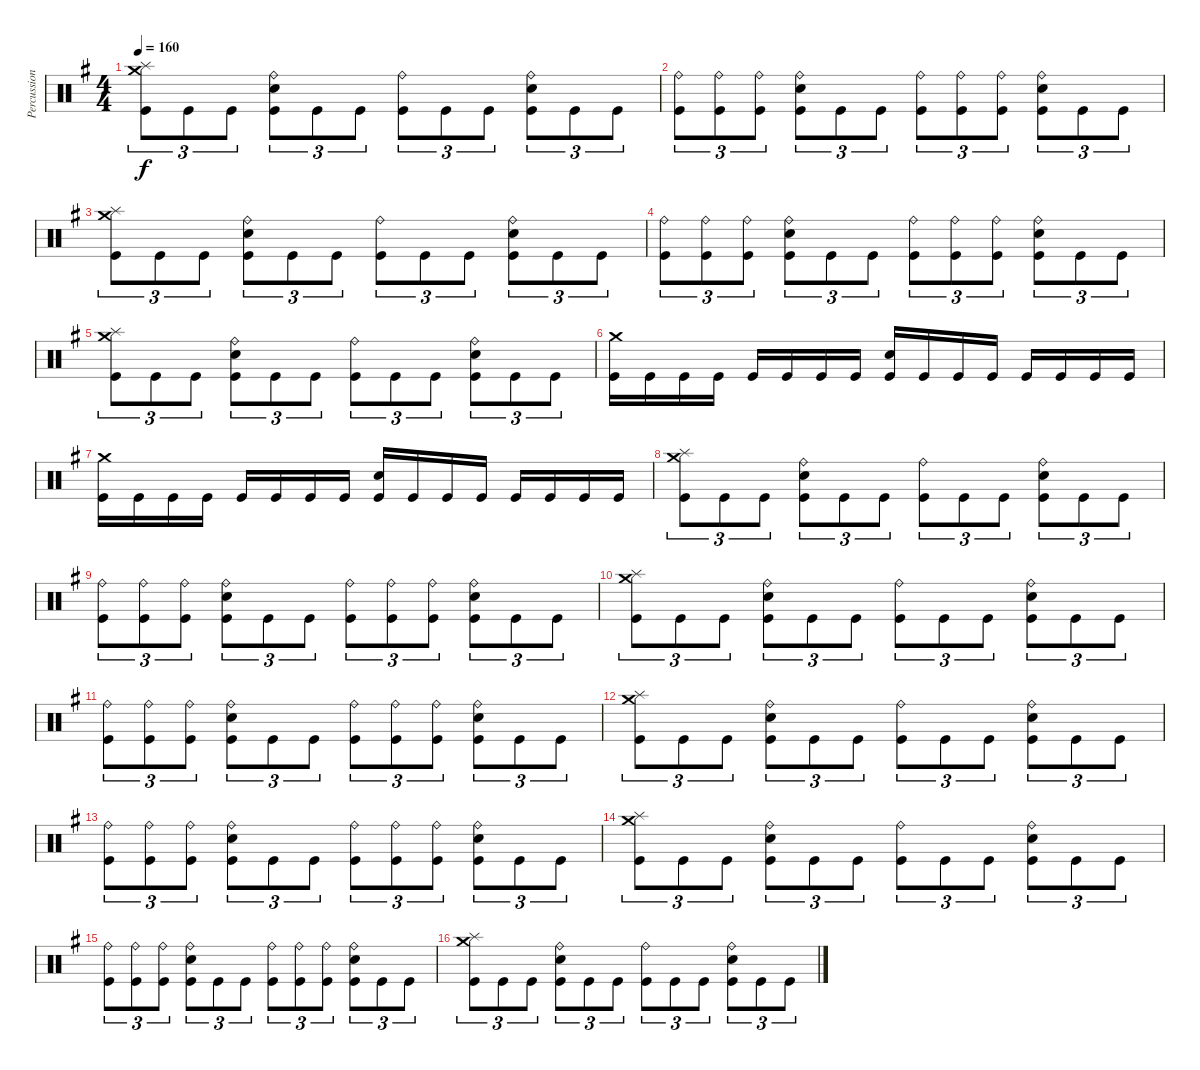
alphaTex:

\track ("Percussions" "Percussion") {instrument percussion}
\staff {score}
\articulation defaults
\ts (4 4)
\tempo 160
\clef neutral
\ks g
("Kick (hit)" "Splash (hit)" "Crash medium (hit)").8{tu (3 2) dy f} "Kick (hit)".8{tu (3 2)} "Kick (hit)".8{tu (3 2)} ("Kick (hit)" "Electric Snare (hit)" "Ride (bell)").8{tu (3 2)} "Kick (hit)".8{tu (3 2)} "Kick (hit)".8{tu (3 2)} ("Kick (hit)" "Ride (bell)").8{tu (3 2)} "Kick (hit)".8{tu (3 2)} "Kick (hit)".8{tu (3 2)} ("Kick (hit)" "Electric Snare (hit)" "Ride (bell)").8{tu (3 2)} "Kick (hit)".8{tu (3 2)} "Kick (hit)".8{tu (3 2)} |
("Kick (hit)" "Ride (bell)").8{tu (3 2)} ("Kick (hit)" "Ride (bell)").8{tu (3 2)} ("Kick (hit)" "Ride (bell)").8{tu (3 2)} ("Kick (hit)" "Electric Snare (hit)" "Ride (bell)").8{tu (3 2)} "Kick (hit)".8{tu (3 2)} "Kick (hit)".8{tu (3 2)} ("Kick (hit)" "Ride (bell)").8{tu (3 2)} ("Kick (hit)" "Ride (bell)").8{tu (3 2)} ("Kick (hit)" "Ride (bell)").8{tu (3 2)} ("Kick (hit)" "Electric Snare (hit)" "Ride (bell)").8{tu (3 2)} "Kick (hit)".8{tu (3 2)} "Kick (hit)".8{tu (3 2)} |
("Kick (hit)" "Splash (hit)" "Crash medium (hit)").8{tu (3 2)} "Kick (hit)".8{tu (3 2)} "Kick (hit)".8{tu (3 2)} ("Kick (hit)" "Electric Snare (hit)" "Ride (bell)").8{tu (3 2)} "Kick (hit)".8{tu (3 2)} "Kick (hit)".8{tu (3 2)} ("Kick (hit)" "Ride (bell)").8{tu (3 2)} "Kick (hit)".8{tu (3 2)} "Kick (hit)".8{tu (3 2)} ("Kick (hit)" "Electric Snare (hit)" "Ride (bell)").8{tu (3 2)} "Kick (hit)".8{tu (3 2)} "Kick (hit)".8{tu (3 2)} |
("Kick (hit)" "Ride (bell)").8{tu (3 2)} ("Kick (hit)" "Ride (bell)").8{tu (3 2)} ("Kick (hit)" "Ride (bell)").8{tu (3 2)} ("Kick (hit)" "Electric Snare (hit)" "Ride (bell)").8{tu (3 2)} "Kick (hit)".8{tu (3 2)} "Kick (hit)".8{tu (3 2)} ("Kick (hit)" "Ride (bell)").8{tu (3 2)} ("Kick (hit)" "Ride (bell)").8{tu (3 2)} ("Kick (hit)" "Ride (bell)").8{tu (3 2)} ("Kick (hit)" "Electric Snare (hit)" "Ride (bell)").8{tu (3 2)} "Kick (hit)".8{tu (3 2)} "Kick (hit)".8{tu (3 2)} |
("Kick (hit)" "Splash (hit)" "Crash medium (hit)").8{tu (3 2)} "Kick (hit)".8{tu (3 2)} "Kick (hit)".8{tu (3 2)} ("Kick (hit)" "Electric Snare (hit)" "Ride (bell)").8{tu (3 2)} "Kick (hit)".8{tu (3 2)} "Kick (hit)".8{tu (3 2)} ("Kick (hit)" "Ride (bell)").8{tu (3 2)} "Kick (hit)".8{tu (3 2)} "Kick (hit)".8{tu (3 2)} ("Kick (hit)" "Electric Snare (hit)" "Ride (bell)").8{tu (3 2)} "Kick (hit)".8{tu (3 2)} "Kick (hit)".8{tu (3 2)} |
("Kick (hit)" "Crash medium (hit)").16 "Kick (hit)".16 "Kick (hit)".16 "Kick (hit)".16 "Kick (hit)".16 "Kick (hit)".16 "Kick (hit)".16 "Kick (hit)".16 ("Kick (hit)" "Electric Snare (hit)").16 "Kick (hit)".16 "Kick (hit)".16 "Kick (hit)".16 "Kick (hit)".16 "Kick (hit)".16 "Kick (hit)".16 "Kick (hit)".16 |
("Kick (hit)" "Crash medium (hit)").16 "Kick (hit)".16 "Kick (hit)".16 "Kick (hit)".16 "Kick (hit)".16 "Kick (hit)".16 "Kick (hit)".16 "Kick (hit)".16 ("Kick (hit)" "Electric Snare (hit)").16 "Kick (hit)".16 "Kick (hit)".16 "Kick (hit)".16 "Kick (hit)".16 "Kick (hit)".16 "Kick (hit)".16 "Kick (hit)".16 |
("Kick (hit)" "Splash (hit)" "Crash medium (hit)").8{tu (3 2)} "Kick (hit)".8{tu (3 2)} "Kick (hit)".8{tu (3 2)} ("Kick (hit)" "Electric Snare (hit)" "Ride (bell)").8{tu (3 2)} "Kick (hit)".8{tu (3 2)} "Kick (hit)".8{tu (3 2)} ("Kick (hit)" "Ride (bell)").8{tu (3 2)} "Kick (hit)".8{tu (3 2)} "Kick (hit)".8{tu (3 2)} ("Kick (hit)" "Electric Snare (hit)" "Ride (bell)").8{tu (3 2)} "Kick (hit)".8{tu (3 2)} "Kick (hit)".8{tu (3 2)} |
("Kick (hit)" "Ride (bell)").8{tu (3 2)} ("Kick (hit)" "Ride (bell)").8{tu (3 2)} ("Kick (hit)" "Ride (bell)").8{tu (3 2)} ("Kick (hit)" "Electric Snare (hit)" "Ride (bell)").8{tu (3 2)} "Kick (hit)".8{tu (3 2)} "Kick (hit)".8{tu (3 2)} ("Kick (hit)" "Ride (bell)").8{tu (3 2)} ("Kick (hit)" "Ride (bell)").8{tu (3 2)} ("Kick (hit)" "Ride (bell)").8{tu (3 2)} ("Kick (hit)" "Electric Snare (hit)" "Ride (bell)").8{tu (3 2)} "Kick (hit)".8{tu (3 2)} "Kick (hit)".8{tu (3 2)} |
("Kick (hit)" "Splash (hit)" "Crash medium (hit)").8{tu (3 2)} "Kick (hit)".8{tu (3 2)} "Kick (hit)".8{tu (3 2)} ("Kick (hit)" "Electric Snare (hit)" "Ride (bell)").8{tu (3 2)} "Kick (hit)".8{tu (3 2)} "Kick (hit)".8{tu (3 2)} ("Kick (hit)" "Ride (bell)").8{tu (3 2)} "Kick (hit)".8{tu (3 2)} "Kick (hit)".8{tu (3 2)} ("Kick (hit)" "Electric Snare (hit)" "Ride (bell)").8{tu (3 2)} "Kick (hit)".8{tu (3 2)} "Kick (hit)".8{tu (3 2)} |
("Kick (hit)" "Ride (bell)").8{tu (3 2)} ("Kick (hit)" "Ride (bell)").8{tu (3 2)} ("Kick (hit)" "Ride (bell)").8{tu (3 2)} ("Kick (hit)" "Electric Snare (hit)" "Ride (bell)").8{tu (3 2)} "Kick (hit)".8{tu (3 2)} "Kick (hit)".8{tu (3 2)} ("Kick (hit)" "Ride (bell)").8{tu (3 2)} ("Kick (hit)" "Ride (bell)").8{tu (3 2)} ("Kick (hit)" "Ride (bell)").8{tu (3 2)} ("Kick (hit)" "Electric Snare (hit)" "Ride (bell)").8{tu (3 2)} "Kick (hit)".8{tu (3 2)} "Kick (hit)".8{tu (3 2)} |
("Kick (hit)" "Splash (hit)" "Crash medium (hit)").8{tu (3 2)} "Kick (hit)".8{tu (3 2)} "Kick (hit)".8{tu (3 2)} ("Kick (hit)" "Electric Snare (hit)" "Ride (bell)").8{tu (3 2)} "Kick (hit)".8{tu (3 2)} "Kick (hit)".8{tu (3 2)} ("Kick (hit)" "Ride (bell)").8{tu (3 2)} "Kick (hit)".8{tu (3 2)} "Kick (hit)".8{tu (3 2)} ("Kick (hit)" "Electric Snare (hit)" "Ride (bell)").8{tu (3 2)} "Kick (hit)".8{tu (3 2)} "Kick (hit)".8{tu (3 2)} |
("Kick (hit)" "Ride (bell)").8{tu (3 2)} ("Kick (hit)" "Ride (bell)").8{tu (3 2)} ("Kick (hit)" "Ride (bell)").8{tu (3 2)} ("Kick (hit)" "Electric Snare (hit)" "Ride (bell)").8{tu (3 2)} "Kick (hit)".8{tu (3 2)} "Kick (hit)".8{tu (3 2)} ("Kick (hit)" "Ride (bell)").8{tu (3 2)} ("Kick (hit)" "Ride (bell)").8{tu (3 2)} ("Kick (hit)" "Ride (bell)").8{tu (3 2)} ("Kick (hit)" "Electric Snare (hit)" "Ride (bell)").8{tu (3 2)} "Kick (hit)".8{tu (3 2)} "Kick (hit)".8{tu (3 2)} |
("Kick (hit)" "Splash (hit)" "Crash medium (hit)").8{tu (3 2)} "Kick (hit)".8{tu (3 2)} "Kick (hit)".8{tu (3 2)} ("Kick (hit)" "Electric Snare (hit)" "Ride (bell)").8{tu (3 2)} "Kick (hit)".8{tu (3 2)} "Kick (hit)".8{tu (3 2)} ("Kick (hit)" "Ride (bell)").8{tu (3 2)} "Kick (hit)".8{tu (3 2)} "Kick (hit)".8{tu (3 2)} ("Kick (hit)" "Electric Snare (hit)" "Ride (bell)").8{tu (3 2)} "Kick (hit)".8{tu (3 2)} "Kick (hit)".8{tu (3 2)} |
("Kick (hit)" "Ride (bell)").8{tu (3 2)} ("Kick (hit)" "Ride (bell)").8{tu (3 2)} ("Kick (hit)" "Ride (bell)").8{tu (3 2)} ("Kick (hit)" "Electric Snare (hit)" "Ride (bell)").8{tu (3 2)} "Kick (hit)".8{tu (3 2)} "Kick (hit)".8{tu (3 2)} ("Kick (hit)" "Ride (bell)").8{tu (3 2)} ("Kick (hit)" "Ride (bell)").8{tu (3 2)} ("Kick (hit)" "Ride (bell)").8{tu (3 2)} ("Kick (hit)" "Electric Snare (hit)" "Ride (bell)").8{tu (3 2)} "Kick (hit)".8{tu (3 2)} "Kick (hit)".8{tu (3 2)} |
("Kick (hit)" "Splash (hit)" "Crash medium (hit)").8{tu (3 2)} "Kick (hit)".8{tu (3 2)} "Kick (hit)".8{tu (3 2)} ("Kick (hit)" "Electric Snare (hit)" "Ride (bell)").8{tu (3 2)} "Kick (hit)".8{tu (3 2)} "Kick (hit)".8{tu (3 2)} ("Kick (hit)" "Ride (bell)").8{tu (3 2)} "Kick (hit)".8{tu (3 2)} "Kick (hit)".8{tu (3 2)} ("Kick (hit)" "Electric Snare (hit)" "Ride (bell)").8{tu (3 2)} "Kick (hit)".8{tu (3 2)} "Kick (hit)".8{tu (3 2)}
